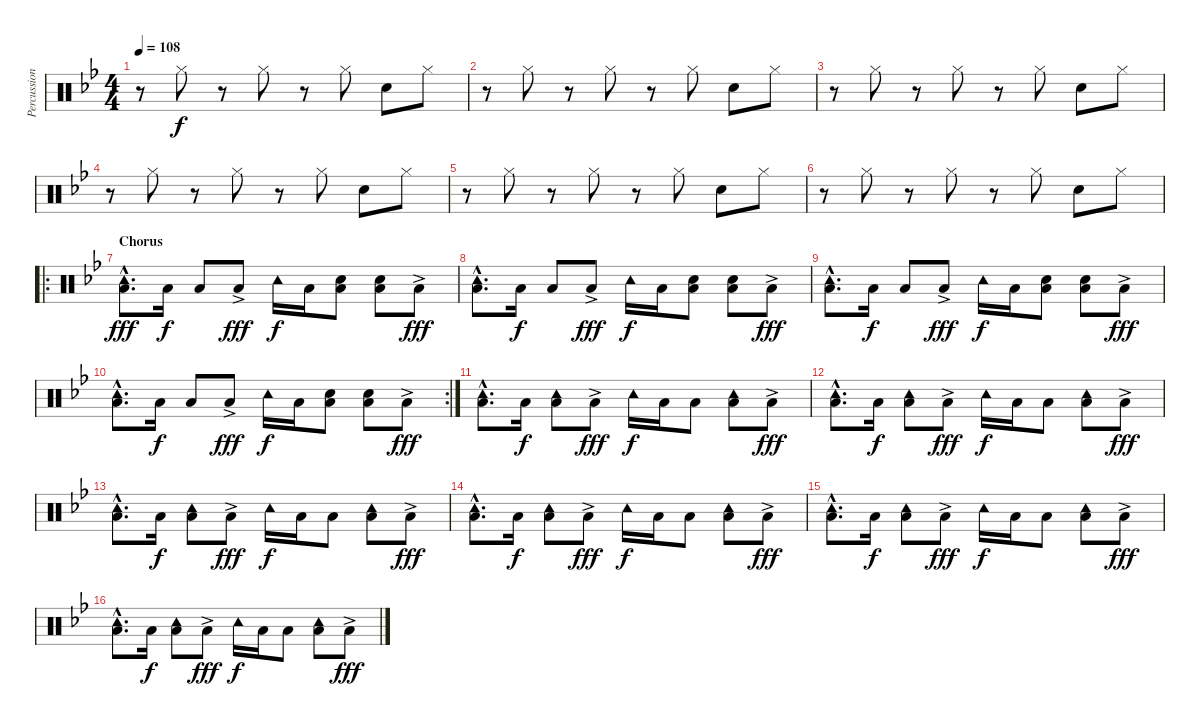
\track ("Percussion" "Percussion") {instrument percussion}
\staff {score}
\articulation defaults
\ts (4 4)
\tempo 108
\clef neutral
\ks bb
r.8{dy f} "Hi-Hat (closed)".8 r.8 "Hi-Hat (closed)".8 r.8 "Hi-Hat (closed)".8 "Electric Snare (hit)".8 "Hi-Hat (closed)".8 |
r.8 "Hi-Hat (closed)".8 r.8 "Hi-Hat (closed)".8 r.8 "Hi-Hat (closed)".8 "Electric Snare (hit)".8 "Hi-Hat (closed)".8 |
r.8 "Hi-Hat (closed)".8 r.8 "Hi-Hat (closed)".8 r.8 "Hi-Hat (closed)".8 "Electric Snare (hit)".8 "Hi-Hat (closed)".8 |
r.8 "Hi-Hat (closed)".8 r.8 "Hi-Hat (closed)".8 r.8 "Hi-Hat (closed)".8 "Electric Snare (hit)".8 "Hi-Hat (closed)".8 |
r.8 "Hi-Hat (closed)".8 r.8 "Hi-Hat (closed)".8 r.8 "Hi-Hat (closed)".8 "Electric Snare (hit)".8 "Hi-Hat (closed)".8 |
r.8 "Hi-Hat (closed)".8 r.8 "Hi-Hat (closed)".8 r.8 "Hi-Hat (closed)".8 "Electric Snare (hit)".8 "Hi-Hat (closed)".8 |
\ro
\section ("" "Chorus")
("Tambourine (hit)"{hac} "Low Tom (hit)"{hac}).8{d dy fff} "Low Tom (hit)".16{dy f} "Low Tom (hit)".8 "Low Tom (hit)"{ac}.8{dy fff} "Tambourine (hit)".16{dy f} "Low Tom (hit)".16 ("Low Tom (hit)" "Hand Clap (hit)").8 ("Low Tom (hit)" "Hand Clap (hit)").8 "Low Tom (hit)"{ac}.8{dy fff} |
("Tambourine (hit)"{hac} "Low Tom (hit)"{hac}).8{d} "Low Tom (hit)".16{dy f} "Low Tom (hit)".8 "Low Tom (hit)"{ac}.8{dy fff} "Tambourine (hit)".16{dy f} "Low Tom (hit)".16 ("Low Tom (hit)" "Hand Clap (hit)").8 ("Low Tom (hit)" "Hand Clap (hit)").8 "Low Tom (hit)"{ac}.8{dy fff} |
("Tambourine (hit)"{hac} "Low Tom (hit)"{hac}).8{d} "Low Tom (hit)".16{dy f} "Low Tom (hit)".8 "Low Tom (hit)"{ac}.8{dy fff} "Tambourine (hit)".16{dy f} "Low Tom (hit)".16 ("Low Tom (hit)" "Hand Clap (hit)").8 ("Low Tom (hit)" "Hand Clap (hit)").8 "Low Tom (hit)"{ac}.8{dy fff} |
\rc 2
("Tambourine (hit)"{hac} "Low Tom (hit)"{hac}).8{d} "Low Tom (hit)".16{dy f} "Low Tom (hit)".8 "Low Tom (hit)"{ac}.8{dy fff} "Tambourine (hit)".16{dy f} "Low Tom (hit)".16 ("Low Tom (hit)" "Hand Clap (hit)").8 ("Low Tom (hit)" "Hand Clap (hit)").8 "Low Tom (hit)"{ac}.8{dy fff} |
("Tambourine (hit)"{hac} "Low Tom (hit)"{hac}).8{d} "Low Tom (hit)".16{dy f} ("Tambourine (hit)" "Low Tom (hit)").8 "Low Tom (hit)"{ac}.8{dy fff} "Tambourine (hit)".16{dy f} "Low Tom (hit)".16 "Low Tom (hit)".8 ("Tambourine (hit)" "Low Tom (hit)").8 "Low Tom (hit)"{ac}.8{dy fff} |
("Tambourine (hit)"{hac} "Low Tom (hit)"{hac}).8{d} "Low Tom (hit)".16{dy f} ("Tambourine (hit)" "Low Tom (hit)").8 "Low Tom (hit)"{ac}.8{dy fff} "Tambourine (hit)".16{dy f} "Low Tom (hit)".16 "Low Tom (hit)".8 ("Tambourine (hit)" "Low Tom (hit)").8 "Low Tom (hit)"{ac}.8{dy fff} |
("Tambourine (hit)"{hac} "Low Tom (hit)"{hac}).8{d} "Low Tom (hit)".16{dy f} ("Tambourine (hit)" "Low Tom (hit)").8 "Low Tom (hit)"{ac}.8{dy fff} "Tambourine (hit)".16{dy f} "Low Tom (hit)".16 "Low Tom (hit)".8 ("Tambourine (hit)" "Low Tom (hit)").8 "Low Tom (hit)"{ac}.8{dy fff} |
("Tambourine (hit)"{hac} "Low Tom (hit)"{hac}).8{d} "Low Tom (hit)".16{dy f} ("Tambourine (hit)" "Low Tom (hit)").8 "Low Tom (hit)"{ac}.8{dy fff} "Tambourine (hit)".16{dy f} "Low Tom (hit)".16 "Low Tom (hit)".8 ("Tambourine (hit)" "Low Tom (hit)").8 "Low Tom (hit)"{ac}.8{dy fff} |
("Tambourine (hit)"{hac} "Low Tom (hit)"{hac}).8{d} "Low Tom (hit)".16{dy f} ("Tambourine (hit)" "Low Tom (hit)").8 "Low Tom (hit)"{ac}.8{dy fff} "Tambourine (hit)".16{dy f} "Low Tom (hit)".16 "Low Tom (hit)".8 ("Tambourine (hit)" "Low Tom (hit)").8 "Low Tom (hit)"{ac}.8{dy fff} |
("Tambourine (hit)"{hac} "Low Tom (hit)"{hac}).8{d} "Low Tom (hit)".16{dy f} ("Tambourine (hit)" "Low Tom (hit)").8 "Low Tom (hit)"{ac}.8{dy fff} "Tambourine (hit)".16{dy f} "Low Tom (hit)".16 "Low Tom (hit)".8 ("Tambourine (hit)" "Low Tom (hit)").8 "Low Tom (hit)"{ac}.8{dy fff}
